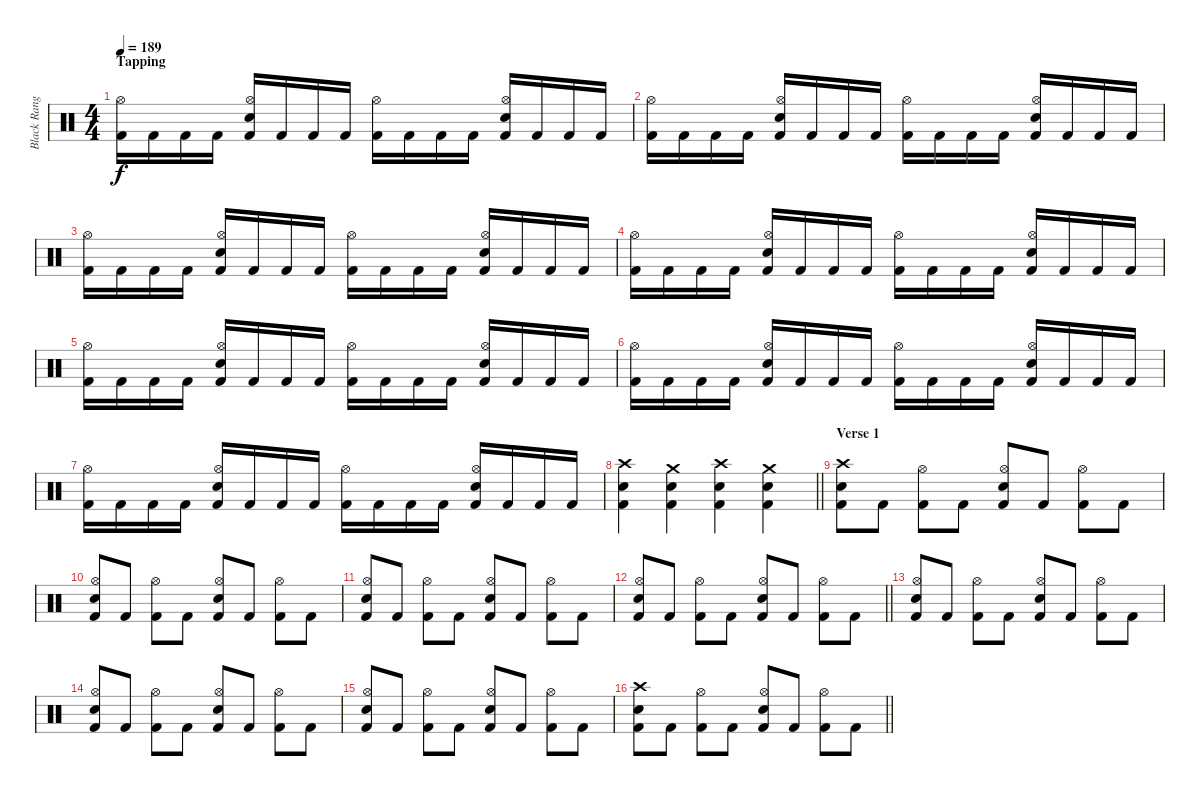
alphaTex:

\track ("Black Ranger (Drums)" "Black Rang") {instrument percussion}
\staff {score}
\articulation defaults
\ts (4 4)
\section ("" "Tapping ")
\tempo 189
\clef neutral
\ks c
("Kick (hit) 2" "Hi-Hat (open)").16{dy f} "Kick (hit) 2".16 "Kick (hit) 2".16 "Kick (hit) 2".16 ("Kick (hit) 2" "Hi-Hat (open)" "Snare (hit) 2").16 "Kick (hit) 2".16 "Kick (hit) 2".16 "Kick (hit) 2".16 ("Kick (hit) 2" "Hi-Hat (open)").16 "Kick (hit) 2".16 "Kick (hit) 2".16 "Kick (hit) 2".16 ("Kick (hit) 2" "Hi-Hat (open)" "Snare (hit) 2").16 "Kick (hit) 2".16 "Kick (hit) 2".16 "Kick (hit) 2".16 |
("Kick (hit) 2" "Hi-Hat (open)").16 "Kick (hit) 2".16 "Kick (hit) 2".16 "Kick (hit) 2".16 ("Kick (hit) 2" "Hi-Hat (open)" "Snare (hit) 2").16 "Kick (hit) 2".16 "Kick (hit) 2".16 "Kick (hit) 2".16 ("Kick (hit) 2" "Hi-Hat (open)").16 "Kick (hit) 2".16 "Kick (hit) 2".16 "Kick (hit) 2".16 ("Kick (hit) 2" "Hi-Hat (open)" "Snare (hit) 2").16 "Kick (hit) 2".16 "Kick (hit) 2".16 "Kick (hit) 2".16 |
("Kick (hit) 2" "Hi-Hat (open)").16 "Kick (hit) 2".16 "Kick (hit) 2".16 "Kick (hit) 2".16 ("Kick (hit) 2" "Hi-Hat (open)" "Snare (hit) 2").16 "Kick (hit) 2".16 "Kick (hit) 2".16 "Kick (hit) 2".16 ("Kick (hit) 2" "Hi-Hat (open)").16 "Kick (hit) 2".16 "Kick (hit) 2".16 "Kick (hit) 2".16 ("Kick (hit) 2" "Hi-Hat (open)" "Snare (hit) 2").16 "Kick (hit) 2".16 "Kick (hit) 2".16 "Kick (hit) 2".16 |
("Kick (hit) 2" "Hi-Hat (open)").16 "Kick (hit) 2".16 "Kick (hit) 2".16 "Kick (hit) 2".16 ("Kick (hit) 2" "Hi-Hat (open)" "Snare (hit) 2").16 "Kick (hit) 2".16 "Kick (hit) 2".16 "Kick (hit) 2".16 ("Kick (hit) 2" "Hi-Hat (open)").16 "Kick (hit) 2".16 "Kick (hit) 2".16 "Kick (hit) 2".16 ("Kick (hit) 2" "Hi-Hat (open)" "Snare (hit) 2").16 "Kick (hit) 2".16 "Kick (hit) 2".16 "Kick (hit) 2".16 |
("Kick (hit) 2" "Hi-Hat (open)").16 "Kick (hit) 2".16 "Kick (hit) 2".16 "Kick (hit) 2".16 ("Kick (hit) 2" "Hi-Hat (open)" "Snare (hit) 2").16 "Kick (hit) 2".16 "Kick (hit) 2".16 "Kick (hit) 2".16 ("Kick (hit) 2" "Hi-Hat (open)").16 "Kick (hit) 2".16 "Kick (hit) 2".16 "Kick (hit) 2".16 ("Kick (hit) 2" "Hi-Hat (open)" "Snare (hit) 2").16 "Kick (hit) 2".16 "Kick (hit) 2".16 "Kick (hit) 2".16 |
("Kick (hit) 2" "Hi-Hat (open)").16 "Kick (hit) 2".16 "Kick (hit) 2".16 "Kick (hit) 2".16 ("Kick (hit) 2" "Hi-Hat (open)" "Snare (hit) 2").16 "Kick (hit) 2".16 "Kick (hit) 2".16 "Kick (hit) 2".16 ("Kick (hit) 2" "Hi-Hat (open)").16 "Kick (hit) 2".16 "Kick (hit) 2".16 "Kick (hit) 2".16 ("Kick (hit) 2" "Hi-Hat (open)" "Snare (hit) 2").16 "Kick (hit) 2".16 "Kick (hit) 2".16 "Kick (hit) 2".16 |
("Kick (hit) 2" "Hi-Hat (open)").16 "Kick (hit) 2".16 "Kick (hit) 2".16 "Kick (hit) 2".16 ("Kick (hit) 2" "Hi-Hat (open)" "Snare (hit) 2").16 "Kick (hit) 2".16 "Kick (hit) 2".16 "Kick (hit) 2".16 ("Kick (hit) 2" "Hi-Hat (open)").16 "Kick (hit) 2".16 "Kick (hit) 2".16 "Kick (hit) 2".16 ("Kick (hit) 2" "Hi-Hat (open)" "Snare (hit) 2").16 "Kick (hit) 2".16 "Kick (hit) 2".16 "Kick (hit) 2".16 |
\barLineRight lightlight
("Snare (hit) 2" "Crash high (hit)" "Kick (hit) 2").4 ("Snare (hit) 2" "Crash medium (hit)" "Kick (hit) 2").4 ("Snare (hit) 2" "Crash high (hit)" "Kick (hit) 2").4 ("Snare (hit) 2" "Crash medium (hit)" "Kick (hit) 2").4 |
\section ("" "Verse 1")
("Kick (hit) 2" "Snare (hit) 2" "Crash high (hit)").8 "Kick (hit) 2".8 ("Kick (hit) 2" "Hi-Hat (open)").8 "Kick (hit) 2".8 ("Kick (hit) 2" "Snare (hit) 2" "Hi-Hat (open)").8 "Kick (hit) 2".8 ("Kick (hit) 2" "Hi-Hat (open)").8 "Kick (hit) 2".8 |
("Kick (hit) 2" "Snare (hit) 2" "Hi-Hat (open)").8 "Kick (hit) 2".8 ("Kick (hit) 2" "Hi-Hat (open)").8 "Kick (hit) 2".8 ("Kick (hit) 2" "Snare (hit) 2" "Hi-Hat (open)").8 "Kick (hit) 2".8 ("Kick (hit) 2" "Hi-Hat (open)").8 "Kick (hit) 2".8 |
("Kick (hit) 2" "Snare (hit) 2" "Hi-Hat (open)").8 "Kick (hit) 2".8 ("Kick (hit) 2" "Hi-Hat (open)").8 "Kick (hit) 2".8 ("Kick (hit) 2" "Snare (hit) 2" "Hi-Hat (open)").8 "Kick (hit) 2".8 ("Kick (hit) 2" "Hi-Hat (open)").8 "Kick (hit) 2".8 |
\barLineRight lightlight
("Kick (hit) 2" "Snare (hit) 2" "Hi-Hat (open)").8 "Kick (hit) 2".8 ("Kick (hit) 2" "Hi-Hat (open)").8 "Kick (hit) 2".8 ("Kick (hit) 2" "Snare (hit) 2" "Hi-Hat (open)").8 "Kick (hit) 2".8 ("Kick (hit) 2" "Hi-Hat (open)").8 "Kick (hit) 2".8 |
("Kick (hit) 2" "Snare (hit) 2" "Hi-Hat (open)").8 "Kick (hit) 2".8 ("Kick (hit) 2" "Hi-Hat (open)").8 "Kick (hit) 2".8 ("Kick (hit) 2" "Snare (hit) 2" "Hi-Hat (open)").8 "Kick (hit) 2".8 ("Kick (hit) 2" "Hi-Hat (open)").8 "Kick (hit) 2".8 |
("Kick (hit) 2" "Snare (hit) 2" "Hi-Hat (open)").8 "Kick (hit) 2".8 ("Kick (hit) 2" "Hi-Hat (open)").8 "Kick (hit) 2".8 ("Kick (hit) 2" "Snare (hit) 2" "Hi-Hat (open)").8 "Kick (hit) 2".8 ("Kick (hit) 2" "Hi-Hat (open)").8 "Kick (hit) 2".8 |
("Kick (hit) 2" "Snare (hit) 2" "Hi-Hat (open)").8 "Kick (hit) 2".8 ("Kick (hit) 2" "Hi-Hat (open)").8 "Kick (hit) 2".8 ("Kick (hit) 2" "Snare (hit) 2" "Hi-Hat (open)").8 "Kick (hit) 2".8 ("Kick (hit) 2" "Hi-Hat (open)").8 "Kick (hit) 2".8 |
\barLineRight lightlight
("Kick (hit) 2" "Snare (hit) 2" "Crash high (hit)").8 "Kick (hit) 2".8 ("Kick (hit) 2" "Hi-Hat (open)").8 "Kick (hit) 2".8 ("Kick (hit) 2" "Snare (hit) 2" "Hi-Hat (open)").8 "Kick (hit) 2".8 ("Kick (hit) 2" "Hi-Hat (open)").8 "Kick (hit) 2".8
